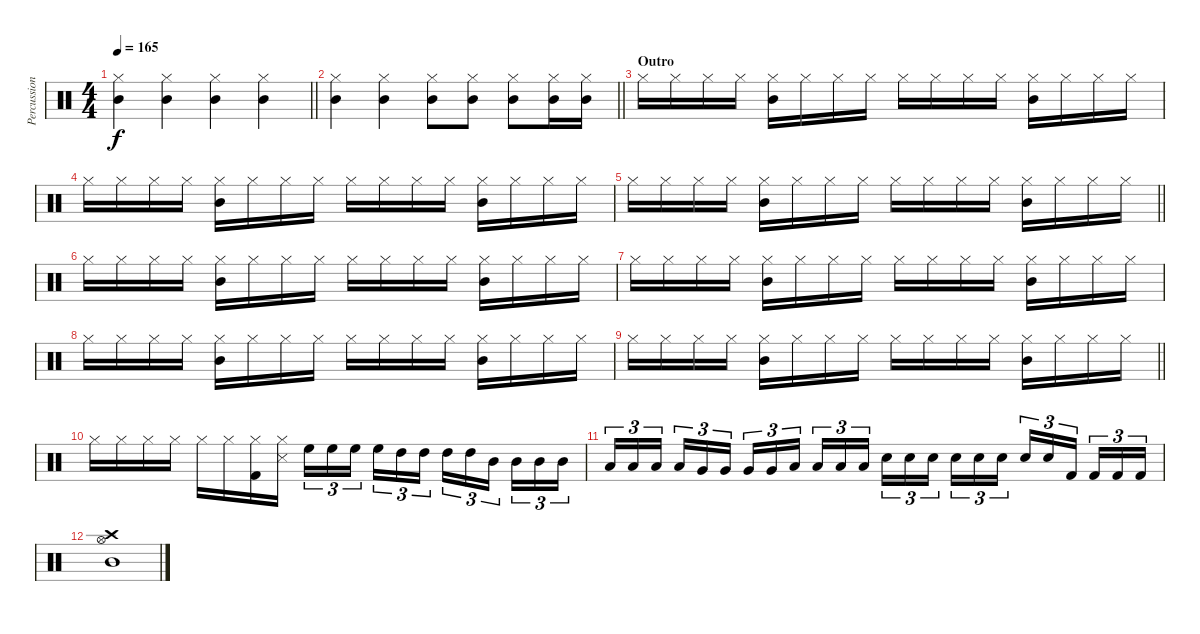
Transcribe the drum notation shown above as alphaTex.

\track ("Percussion Improvisation" "Percussion") {instrument percussion}
\staff {score}
\articulation defaults
\ts (4 4)
\tempo 165
\clef neutral
\barLineRight lightlight
\ks c
("Hi-Hat (closed)" "Mid Tom (hit)").4{dy f} ("Mid Tom (hit)" "Hi-Hat (closed)").4 ("Hi-Hat (closed)" "Mid Tom (hit)").4 ("Hi-Hat (closed)" "Mid Tom (hit)").4 |
\barLineRight lightlight
("Hi-Hat (closed)" "Mid Tom (hit)").4 ("Mid Tom (hit)" "Hi-Hat (closed)").4 ("Hi-Hat (closed)" "Mid Tom (hit)").8 ("Hi-Hat (closed)" "Mid Tom (hit)").8 ("Hi-Hat (closed)" "Mid Tom (hit)").8 ("Hi-Hat (closed)" "Mid Tom (hit)").16 ("Hi-Hat (closed)" "Mid Tom (hit)").16 |
\section ("" "Outro")
"Hi-Hat (closed)".16 "Hi-Hat (closed)".16 "Hi-Hat (closed)".16 "Hi-Hat (closed)".16 ("Hi-Hat (closed)" "Mid Tom (hit)").16 "Hi-Hat (closed)".16 "Hi-Hat (closed)".16 "Hi-Hat (closed)".16 "Hi-Hat (closed)".16 "Hi-Hat (closed)".16 "Hi-Hat (closed)".16 "Hi-Hat (closed)".16 ("Hi-Hat (closed)" "Mid Tom (hit)").16 "Hi-Hat (closed)".16 "Hi-Hat (closed)".16 "Hi-Hat (closed)".16 |
"Hi-Hat (closed)".16 "Hi-Hat (closed)".16 "Hi-Hat (closed)".16 "Hi-Hat (closed)".16 ("Hi-Hat (closed)" "Mid Tom (hit)").16 "Hi-Hat (closed)".16 "Hi-Hat (closed)".16 "Hi-Hat (closed)".16 "Hi-Hat (closed)".16 "Hi-Hat (closed)".16 "Hi-Hat (closed)".16 "Hi-Hat (closed)".16 ("Hi-Hat (closed)" "Mid Tom (hit)").16 "Hi-Hat (closed)".16 "Hi-Hat (closed)".16 "Hi-Hat (closed)".16 |
\barLineRight lightlight "Hi-Hat (closed)".16 "Hi-Hat (closed)".16 "Hi-Hat (closed)".16 "Hi-Hat (closed)".16
("Hi-Hat (closed)" "Mid Tom (hit)").16 "Hi-Hat (closed)".16 "Hi-Hat (closed)".16 "Hi-Hat (closed)".16 "Hi-Hat (closed)".16 "Hi-Hat (closed)".16 "Hi-Hat (closed)".16 "Hi-Hat (closed)".16 ("Hi-Hat (closed)" "Mid Tom (hit)").16 "Hi-Hat (closed)".16 "Hi-Hat (closed)".16 "Hi-Hat (closed)".16 |
"Hi-Hat (closed)".16 "Hi-Hat (closed)".16 "Hi-Hat (closed)".16 "Hi-Hat (closed)".16 ("Hi-Hat (closed)" "Mid Tom (hit)").16 "Hi-Hat (closed)".16 "Hi-Hat (closed)".16 "Hi-Hat (closed)".16 "Hi-Hat (closed)".16 "Hi-Hat (closed)".16 "Hi-Hat (closed)".16 "Hi-Hat (closed)".16 ("Hi-Hat (closed)" "Mid Tom (hit)").16 "Hi-Hat (closed)".16 "Hi-Hat (closed)".16 "Hi-Hat (closed)".16 |
"Hi-Hat (closed)".16 "Hi-Hat (closed)".16 "Hi-Hat (closed)".16 "Hi-Hat (closed)".16 ("Hi-Hat (closed)" "Mid Tom (hit)").16 "Hi-Hat (closed)".16 "Hi-Hat (closed)".16 "Hi-Hat (closed)".16 "Hi-Hat (closed)".16 "Hi-Hat (closed)".16 "Hi-Hat (closed)".16 "Hi-Hat (closed)".16 ("Hi-Hat (closed)" "Mid Tom (hit)").16 "Hi-Hat (closed)".16 "Hi-Hat (closed)".16 "Hi-Hat (closed)".16 |
"Hi-Hat (closed)".16 "Hi-Hat (closed)".16 "Hi-Hat (closed)".16 "Hi-Hat (closed)".16 ("Hi-Hat (closed)" "Mid Tom (hit)").16 "Hi-Hat (closed)".16 "Hi-Hat (closed)".16 "Hi-Hat (closed)".16 "Hi-Hat (closed)".16 "Hi-Hat (closed)".16 "Hi-Hat (closed)".16 "Hi-Hat (closed)".16 ("Hi-Hat (closed)" "Mid Tom (hit)").16 "Hi-Hat (closed)".16 "Hi-Hat (closed)".16 "Hi-Hat (closed)".16 |
\barLineRight lightlight "Hi-Hat (closed)".16 "Hi-Hat (closed)".16 "Hi-Hat (closed)".16 "Hi-Hat (closed)".16
("Hi-Hat (closed)" "Mid Tom (hit)").16 "Hi-Hat (closed)".16 "Hi-Hat (closed)".16 "Hi-Hat (closed)".16 "Hi-Hat (closed)".16 "Hi-Hat (closed)".16 "Hi-Hat (closed)".16 "Hi-Hat (closed)".16 ("Hi-Hat (closed)" "Mid Tom (hit)").16 "Hi-Hat (closed)".16 "Hi-Hat (closed)".16 "Hi-Hat (closed)".16 |
"Hi-Hat (closed)".16 "Hi-Hat (closed)".16 "Hi-Hat (closed)".16 "Hi-Hat (closed)".16 "Hi-Hat (closed)".16 "Hi-Hat (closed)".16 ("Hi-Hat (closed)" "Kick (hit) 2").16 ("Hi-Hat (closed)" "Snare (side stick) 3").16 "High Floor Tom (hit)".16{tu (3 2)} "High Floor Tom (hit)".16{tu (3 2)} "High Floor Tom (hit)".16{tu (3 2) beam splitsecondary} "High Floor Tom (hit)".16{tu (3 2)} "High Tom (hit)".16{tu (3 2)} "High Tom (hit)".16{tu (3 2)} "High Tom (hit)".16{tu (3 2)} "High Tom (hit)".16{tu (3 2)} "Mid Tom (hit)".16{tu (3 2) beam splitsecondary} "Mid Tom (hit)".16{tu (3 2)} "Mid Tom (hit)".16{tu (3 2)} "Mid Tom (hit)".16{tu (3 2)} |
"Low Tom (hit)".16{tu (3 2)} "Low Tom (hit)".16{tu (3 2)} "Low Tom (hit)".16{tu (3 2) beam splitsecondary} "Low Tom (hit)".16{tu (3 2)} "Very Low Tom (hit)".16{tu (3 2)} "Very Low Tom (hit)".16{tu (3 2)} "Very Low Tom (hit)".16{tu (3 2)} "Very Low Tom (hit)".16{tu (3 2)} "Low Floor Tom (hit)".16{tu (3 2) beam splitsecondary} "Low Floor Tom (hit)".16{tu (3 2)} "Low Floor Tom (hit)".16{tu (3 2)} "Low Floor Tom (hit)".16{tu (3 2)} "Electric Snare (hit)".16{tu (3 2)} "Electric Snare (hit)".16{tu (3 2)} "Electric Snare (hit)".16{tu (3 2) beam splitsecondary} "Electric Snare (hit)".16{tu (3 2)} "Snare (hit) 2".16{tu (3 2)} "Snare (hit) 2".16{tu (3 2)} "Snare (hit) 2".16{tu (3 2)} "Snare (hit) 2".16{tu (3 2)} "Kick (hit) 2".16{tu (3 2) beam splitsecondary} "Kick (hit) 2".16{tu (3 2)} "Kick (hit) 2".16{tu (3 2)} "Kick (hit) 2".16{tu (3 2)} |
("Hi-Hat (open)" "Crash high (hit)" "Mid Tom (hit)").1
